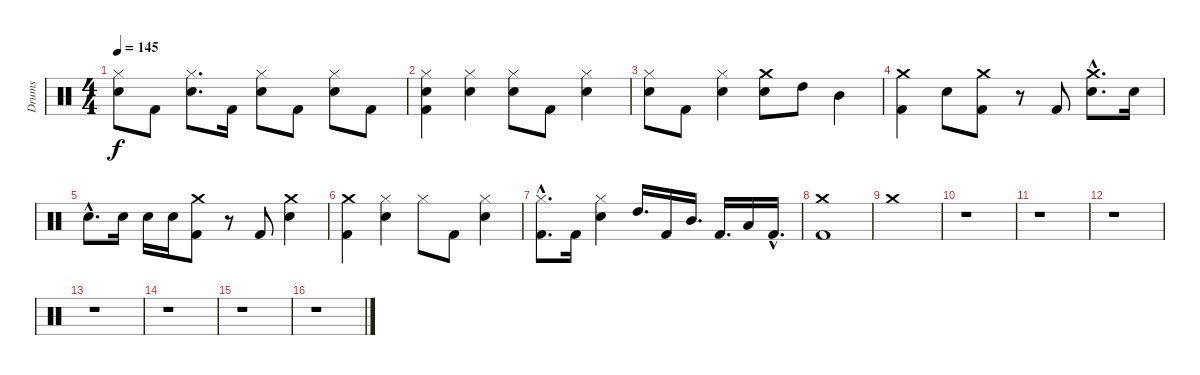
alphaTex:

\track ("Drums" "Drums") {instrument percussion}
\staff {score}
\articulation defaults
\ts (4 4)
\tempo 145
\clef neutral
\ks c
("Hi-Hat (closed)" "Snare (hit) 2").8{dy f} "Kick (hit) 2".8 ("Hi-Hat (closed)" "Snare (hit) 2").8{d} "Kick (hit) 2".16 ("Hi-Hat (closed)" "Snare (hit) 2").8 "Kick (hit) 2".8 ("Hi-Hat (closed)" "Snare (hit) 2").8 "Kick (hit) 2".8 |
("Hi-Hat (closed)" "Snare (hit) 2" "Kick (hit) 2").4 ("Hi-Hat (closed)" "Snare (hit) 2").4 ("Hi-Hat (closed)" "Snare (hit) 2").8 "Kick (hit) 2".8 ("Hi-Hat (closed)" "Snare (hit) 2").4 |
("Hi-Hat (closed)" "Snare (hit) 2").8 "Kick (hit) 2".8 ("Hi-Hat (closed)" "Snare (hit) 2").4 ("Crash medium (hit)" "Snare (hit) 2").8 "High Tom (hit)".8 "Mid Tom (hit)".4 |
("Crash medium (hit)" "Kick (hit) 2").4 "Snare (hit) 2".8 ("Kick (hit) 2" "Crash medium (hit)").8 r.8 "Kick (hit) 2".8 ("Crash medium (hit)"{hac} "Snare (hit) 2"{hac}).8{d} "Snare (hit) 2".16 |
"Snare (hit) 2"{hac}.8{d} "Snare (hit) 2".16 "Snare (hit) 2".16 "Snare (hit) 2".16 ("Kick (hit) 2" "Crash medium (hit)").8 r.8 "Kick (hit) 2".8 ("Crash medium (hit)" "Snare (hit) 2").4 |
("Crash medium (hit)" "Kick (hit) 2").4 ("Snare (hit) 2" "Hi-Hat (closed)").4 "Hi-Hat (closed)".8 "Kick (hit) 2".8 ("Snare (hit) 2" "Hi-Hat (closed)").4 |
("Kick (hit) 2"{hac} "Hi-Hat (closed)"{hac}).8{d} "Kick (hit) 2".16 ("Hi-Hat (closed)" "Snare (hit) 2").4 "High Tom (hit)".16{d} "Kick (hit) 2".16 "Mid Tom (hit)".16{d} "Kick (hit) 2".16{d} "Low Tom (hit)".16 "Kick (hit) 2"{hac}.16{d} |
("Kick (hit) 2" "Crash medium (hit)").1 |
"Crash medium (hit)".1 |
r.1 |
r.1 |
r.1 |
r.1 |
r.1 |
r.1 |
r.1
